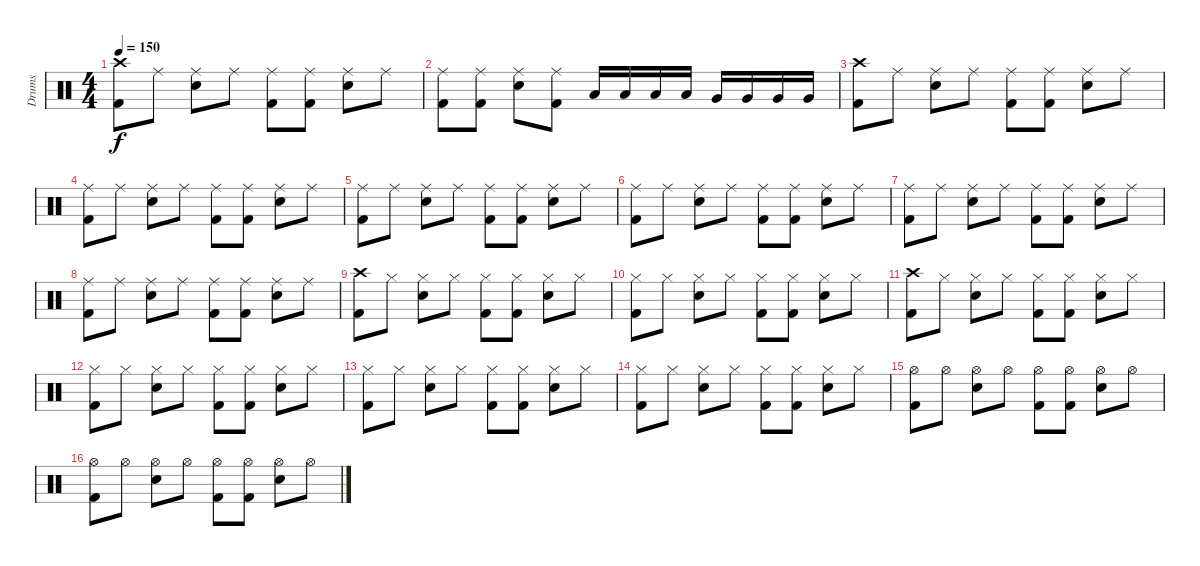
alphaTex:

\track ("Drums" "Drums") {instrument percussion}
\staff {score}
\articulation defaults
\ts (4 4)
\tempo 150
\clef neutral
\ks c
("Crash high (hit)" "Kick (hit) 2").8{dy f} "Ride (middle)".8 ("Ride (middle)" "Electric Snare (hit)").8 "Ride (middle)".8 ("Ride (middle)" "Kick (hit) 2").8 ("Ride (middle)" "Kick (hit) 2").8 ("Ride (middle)" "Electric Snare (hit)").8 "Ride (middle)".8 |
("Ride (middle)" "Kick (hit) 2").8 ("Ride (middle)" "Kick (hit) 2").8 ("Ride (middle)" "Electric Snare (hit)").8 ("Ride (middle)" "Kick (hit) 2").8 "Low Tom (hit)".16 "Low Tom (hit)".16 "Low Tom (hit)".16 "Low Tom (hit)".16 "Very Low Tom (hit)".16 "Very Low Tom (hit)".16 "Very Low Tom (hit)".16 "Very Low Tom (hit)".16 |
("Crash high (hit)" "Kick (hit) 2").8 "Ride (middle)".8 ("Ride (middle)" "Electric Snare (hit)").8 "Ride (middle)".8 ("Ride (middle)" "Kick (hit) 2").8 ("Ride (middle)" "Kick (hit) 2").8 ("Ride (middle)" "Electric Snare (hit)").8 "Ride (middle)".8 |
("Ride (middle)" "Kick (hit) 2").8 "Ride (middle)".8 ("Ride (middle)" "Electric Snare (hit)").8 "Ride (middle)".8 ("Ride (middle)" "Kick (hit) 2").8 ("Ride (middle)" "Kick (hit) 2").8 ("Ride (middle)" "Electric Snare (hit)").8 "Ride (middle)".8 |
("Ride (middle)" "Kick (hit) 2").8 "Ride (middle)".8 ("Ride (middle)" "Electric Snare (hit)").8 "Ride (middle)".8 ("Ride (middle)" "Kick (hit) 2").8 ("Ride (middle)" "Kick (hit) 2").8 ("Ride (middle)" "Electric Snare (hit)").8 "Ride (middle)".8 |
("Ride (middle)" "Kick (hit) 2").8 "Ride (middle)".8 ("Ride (middle)" "Electric Snare (hit)").8 "Ride (middle)".8 ("Ride (middle)" "Kick (hit) 2").8 ("Ride (middle)" "Kick (hit) 2").8 ("Ride (middle)" "Electric Snare (hit)").8 "Ride (middle)".8 |
("Ride (middle)" "Kick (hit) 2").8 "Ride (middle)".8 ("Ride (middle)" "Electric Snare (hit)").8 "Ride (middle)".8 ("Ride (middle)" "Kick (hit) 2").8 ("Ride (middle)" "Kick (hit) 2").8 ("Ride (middle)" "Electric Snare (hit)").8 "Ride (middle)".8 |
("Ride (middle)" "Kick (hit) 2").8 "Ride (middle)".8 ("Ride (middle)" "Electric Snare (hit)").8 "Ride (middle)".8 ("Ride (middle)" "Kick (hit) 2").8 ("Ride (middle)" "Kick (hit) 2").8 ("Ride (middle)" "Electric Snare (hit)").8 "Ride (middle)".8 |
("Crash high (hit)" "Kick (hit) 2").8 "Hi-Hat (closed)".8 ("Hi-Hat (closed)" "Electric Snare (hit)").8 "Hi-Hat (closed)".8 ("Hi-Hat (closed)" "Kick (hit) 2").8 ("Hi-Hat (closed)" "Kick (hit) 2").8 ("Hi-Hat (closed)" "Electric Snare (hit)").8 "Hi-Hat (closed)".8 |
("Hi-Hat (closed)" "Kick (hit) 2").8 "Hi-Hat (closed)".8 ("Hi-Hat (closed)" "Electric Snare (hit)").8 "Hi-Hat (closed)".8 ("Hi-Hat (closed)" "Kick (hit) 2").8 ("Hi-Hat (closed)" "Kick (hit) 2").8 ("Hi-Hat (closed)" "Electric Snare (hit)").8 "Hi-Hat (closed)".8 |
("Crash high (hit)" "Kick (hit) 2").8 "Hi-Hat (closed)".8 ("Hi-Hat (closed)" "Electric Snare (hit)").8 "Hi-Hat (closed)".8 ("Hi-Hat (closed)" "Kick (hit) 2").8 ("Hi-Hat (closed)" "Kick (hit) 2").8 ("Hi-Hat (closed)" "Electric Snare (hit)").8 "Hi-Hat (closed)".8 |
("Hi-Hat (closed)" "Kick (hit) 2").8 "Hi-Hat (closed)".8 ("Hi-Hat (closed)" "Electric Snare (hit)").8 "Hi-Hat (closed)".8 ("Hi-Hat (closed)" "Kick (hit) 2").8 ("Hi-Hat (closed)" "Kick (hit) 2").8 ("Hi-Hat (closed)" "Electric Snare (hit)").8 "Hi-Hat (closed)".8 |
("Hi-Hat (closed)" "Kick (hit) 2").8 "Hi-Hat (closed)".8 ("Hi-Hat (closed)" "Electric Snare (hit)").8 "Hi-Hat (closed)".8 ("Hi-Hat (closed)" "Kick (hit) 2").8 ("Hi-Hat (closed)" "Kick (hit) 2").8 ("Hi-Hat (closed)" "Electric Snare (hit)").8 "Hi-Hat (closed)".8 |
("Hi-Hat (closed)" "Kick (hit) 2").8 "Hi-Hat (closed)".8 ("Hi-Hat (closed)" "Electric Snare (hit)").8 "Hi-Hat (closed)".8 ("Hi-Hat (closed)" "Kick (hit) 2").8 ("Hi-Hat (closed)" "Kick (hit) 2").8 ("Hi-Hat (closed)" "Electric Snare (hit)").8 "Hi-Hat (closed)".8 |
("Hi-Hat (open)" "Kick (hit) 2").8 "Hi-Hat (open)".8 ("Hi-Hat (open)" "Electric Snare (hit)").8 "Hi-Hat (open)".8 ("Hi-Hat (open)" "Kick (hit) 2").8 ("Hi-Hat (open)" "Kick (hit) 2").8 ("Hi-Hat (open)" "Electric Snare (hit)").8 "Hi-Hat (open)".8 |
("Hi-Hat (open)" "Kick (hit) 2").8 "Hi-Hat (open)".8 ("Hi-Hat (open)" "Electric Snare (hit)").8 "Hi-Hat (open)".8 ("Hi-Hat (open)" "Kick (hit) 2").8 ("Hi-Hat (open)" "Kick (hit) 2").8 ("Hi-Hat (open)" "Electric Snare (hit)").8 "Hi-Hat (open)".8
